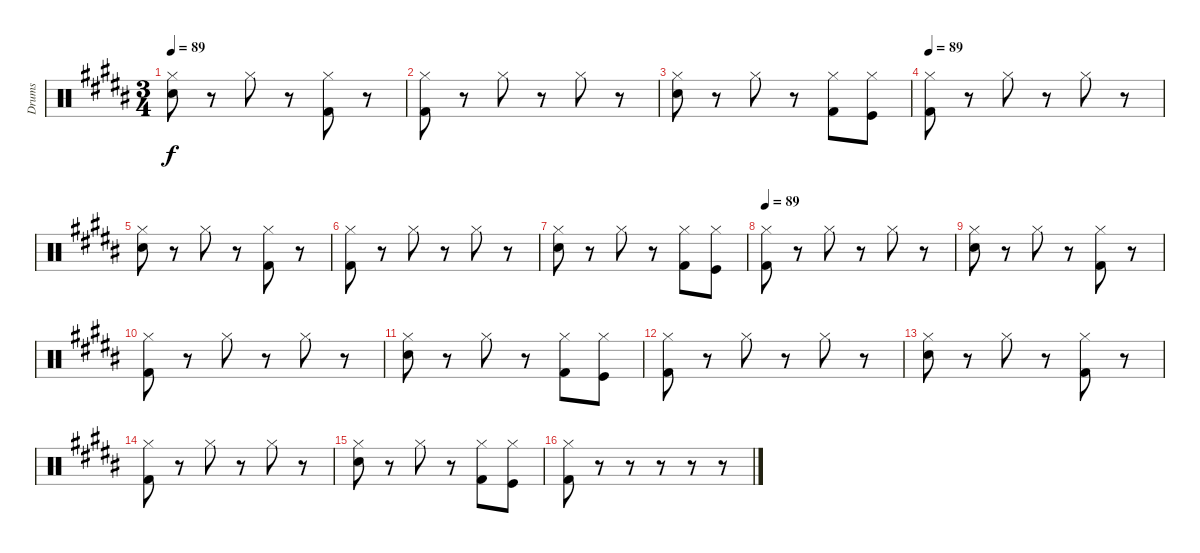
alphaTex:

\track ("Drums" "Drums") {instrument percussion}
\staff {score}
\articulation defaults
\ts (3 4)
\tempo 89
\clef neutral
\ks b
("Hi-Hat (closed)" "Snare (hit) 2").8{dy f} r.8 "Hi-Hat (closed)".8 r.8 ("Hi-Hat (closed)" "Kick (hit) 2").8 r.8 |
("Hi-Hat (closed)" "Kick (hit) 2").8 r.8 "Hi-Hat (closed)".8 r.8 "Hi-Hat (closed)".8 r.8 |
("Hi-Hat (closed)" "Snare (hit) 2").8 r.8 "Hi-Hat (closed)".8 r.8 ("Hi-Hat (closed)" "Kick (hit) 2").8 ("Hi-Hat (closed)" "Kick (hit)").8 |
\tempo 89
("Hi-Hat (closed)" "Kick (hit) 2").8 r.8 "Hi-Hat (closed)".8 r.8 "Hi-Hat (closed)".8 r.8 |
("Hi-Hat (closed)" "Snare (hit) 2").8 r.8 "Hi-Hat (closed)".8 r.8 ("Hi-Hat (closed)" "Kick (hit) 2").8 r.8 |
("Hi-Hat (closed)" "Kick (hit) 2").8 r.8 "Hi-Hat (closed)".8 r.8 "Hi-Hat (closed)".8 r.8 |
("Hi-Hat (closed)" "Snare (hit) 2").8 r.8 "Hi-Hat (closed)".8 r.8 ("Hi-Hat (closed)" "Kick (hit) 2").8 ("Hi-Hat (closed)" "Kick (hit)").8 |
\tempo 89
("Hi-Hat (closed)" "Kick (hit) 2").8 r.8 "Hi-Hat (closed)".8 r.8 "Hi-Hat (closed)".8 r.8 |
("Hi-Hat (closed)" "Snare (hit) 2").8 r.8 "Hi-Hat (closed)".8 r.8 ("Hi-Hat (closed)" "Kick (hit) 2").8 r.8 |
("Hi-Hat (closed)" "Kick (hit) 2").8 r.8 "Hi-Hat (closed)".8 r.8 "Hi-Hat (closed)".8 r.8 |
("Hi-Hat (closed)" "Snare (hit) 2").8 r.8 "Hi-Hat (closed)".8 r.8 ("Hi-Hat (closed)" "Kick (hit) 2").8 ("Hi-Hat (closed)" "Kick (hit)").8 |
("Hi-Hat (closed)" "Kick (hit) 2").8 r.8 "Hi-Hat (closed)".8 r.8 "Hi-Hat (closed)".8 r.8 |
("Hi-Hat (closed)" "Snare (hit) 2").8 r.8 "Hi-Hat (closed)".8 r.8 ("Hi-Hat (closed)" "Kick (hit) 2").8 r.8 |
("Hi-Hat (closed)" "Kick (hit) 2").8 r.8 "Hi-Hat (closed)".8 r.8 "Hi-Hat (closed)".8 r.8 |
("Hi-Hat (closed)" "Snare (hit) 2").8 r.8 "Hi-Hat (closed)".8 r.8 ("Hi-Hat (closed)" "Kick (hit) 2").8 ("Hi-Hat (closed)" "Kick (hit)").8 |
("Hi-Hat (closed)" "Kick (hit) 2").8 r.8 r.8 r.8 r.8 r.8
